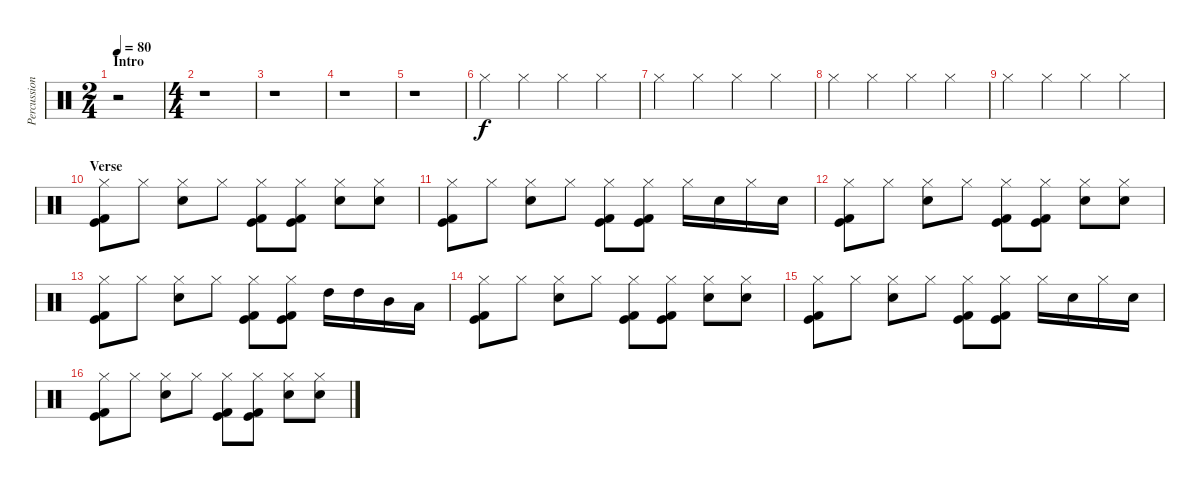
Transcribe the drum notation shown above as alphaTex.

\track ("Percussion" "Percussion") {instrument percussion}
\staff {score}
\articulation defaults
\ts (2 4)
\section ("" "Intro")
\tempo 80
\clef neutral
\ks c
r.2{dy f} |
\ts (4 4)
r.1 |
r.1 |
r.1 |
r.1 |
"Hi-Hat (closed)".4 "Hi-Hat (closed)".4 "Hi-Hat (closed)".4 "Hi-Hat (closed)".4 |
"Hi-Hat (closed)".4 "Hi-Hat (closed)".4 "Hi-Hat (closed)".4 "Hi-Hat (closed)".4 |
"Hi-Hat (closed)".4 "Hi-Hat (closed)".4 "Hi-Hat (closed)".4 "Hi-Hat (closed)".4 |
"Hi-Hat (closed)".4 "Hi-Hat (closed)".4 "Hi-Hat (closed)".4 "Hi-Hat (closed)".4 |
\section ("" "Verse")
("Hi-Hat (closed)" "Kick (hit) 2" "Kick (hit)").8 "Hi-Hat (closed)".8 ("Hi-Hat (closed)" "Snare (hit) 2").8 "Hi-Hat (closed)".8 ("Hi-Hat (closed)" "Kick (hit) 2" "Kick (hit)").8 ("Hi-Hat (closed)" "Kick (hit) 2" "Kick (hit)").8 ("Hi-Hat (closed)" "Snare (hit) 2").8 ("Hi-Hat (closed)" "Snare (hit) 2").8 |
("Hi-Hat (closed)" "Kick (hit) 2" "Kick (hit)").8 "Hi-Hat (closed)".8 ("Hi-Hat (closed)" "Snare (hit) 2").8 "Hi-Hat (closed)".8 ("Hi-Hat (closed)" "Kick (hit) 2" "Kick (hit)").8 ("Hi-Hat (closed)" "Kick (hit) 2" "Kick (hit)").8 "Hi-Hat (closed)".16 "Snare (hit) 2".16 "Hi-Hat (closed)".16 "Snare (hit) 2".16 |
("Hi-Hat (closed)" "Kick (hit) 2" "Kick (hit)").8 "Hi-Hat (closed)".8 ("Hi-Hat (closed)" "Snare (hit) 2").8 "Hi-Hat (closed)".8 ("Hi-Hat (closed)" "Kick (hit) 2" "Kick (hit)").8 ("Hi-Hat (closed)" "Kick (hit) 2" "Kick (hit)").8 ("Hi-Hat (closed)" "Snare (hit) 2").8 ("Hi-Hat (closed)" "Snare (hit) 2").8 |
("Hi-Hat (closed)" "Kick (hit) 2" "Kick (hit)").8 "Hi-Hat (closed)".8 ("Hi-Hat (closed)" "Snare (hit) 2").8 "Hi-Hat (closed)".8 ("Hi-Hat (closed)" "Kick (hit) 2" "Kick (hit)").8 ("Hi-Hat (closed)" "Kick (hit) 2" "Kick (hit)").8 "High Tom (hit)".16 "High Tom (hit)".16 "Mid Tom (hit)".16 "Low Tom (hit)".16 |
("Hi-Hat (closed)" "Kick (hit) 2" "Kick (hit)").8 "Hi-Hat (closed)".8 ("Hi-Hat (closed)" "Snare (hit) 2").8 "Hi-Hat (closed)".8 ("Hi-Hat (closed)" "Kick (hit) 2" "Kick (hit)").8 ("Hi-Hat (closed)" "Kick (hit) 2" "Kick (hit)").8 ("Hi-Hat (closed)" "Snare (hit) 2").8 ("Hi-Hat (closed)" "Snare (hit) 2").8 |
("Hi-Hat (closed)" "Kick (hit) 2" "Kick (hit)").8 "Hi-Hat (closed)".8 ("Hi-Hat (closed)" "Snare (hit) 2").8 "Hi-Hat (closed)".8 ("Hi-Hat (closed)" "Kick (hit) 2" "Kick (hit)").8 ("Hi-Hat (closed)" "Kick (hit) 2" "Kick (hit)").8 "Hi-Hat (closed)".16 "Snare (hit) 2".16 "Hi-Hat (closed)".16 "Snare (hit) 2".16 |
("Hi-Hat (closed)" "Kick (hit) 2" "Kick (hit)").8 "Hi-Hat (closed)".8 ("Hi-Hat (closed)" "Snare (hit) 2").8 "Hi-Hat (closed)".8 ("Hi-Hat (closed)" "Kick (hit) 2" "Kick (hit)").8 ("Hi-Hat (closed)" "Kick (hit) 2" "Kick (hit)").8 ("Hi-Hat (closed)" "Snare (hit) 2").8 ("Hi-Hat (closed)" "Snare (hit) 2").8
